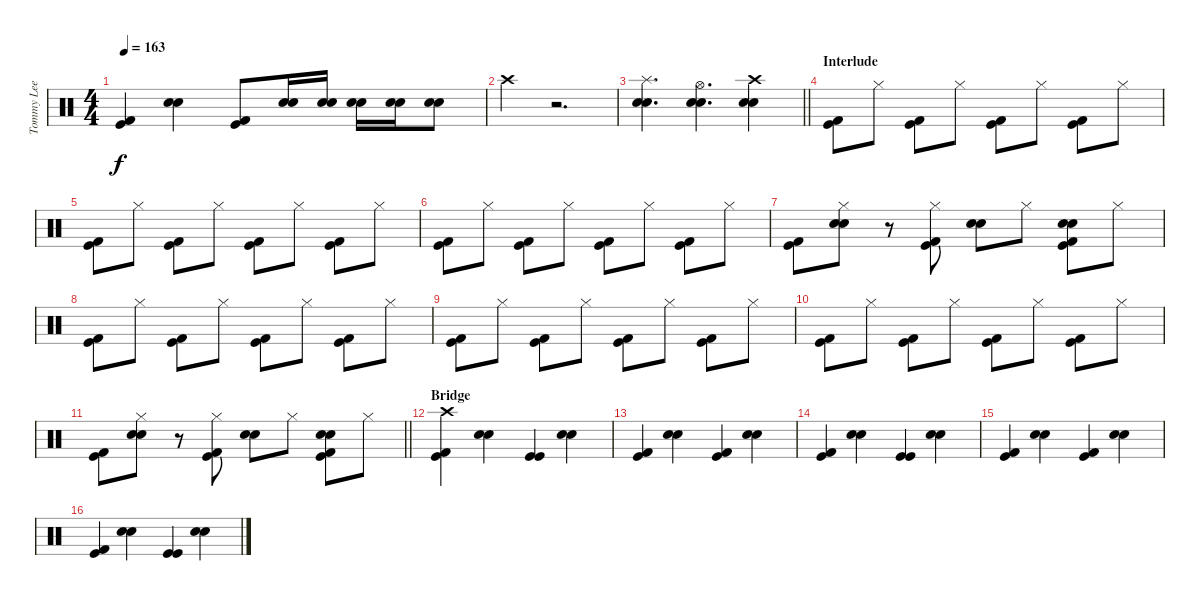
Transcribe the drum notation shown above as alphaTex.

\track ("Tommy Lee" "Tommy Lee") {instrument percussion}
\staff {score}
\articulation defaults
\ts (4 4)
\tempo 163
\clef neutral
\ks c
("Kick (hit) 2" "Kick (hit)").4{dy f} ("Electric Snare (hit)" "Snare (hit) 2").4 ("Kick (hit) 2" "Kick (hit)").8 ("Electric Snare (hit)" "Snare (hit) 2").16 ("Electric Snare (hit)" "Snare (hit) 2").16 ("Electric Snare (hit)" "Snare (hit) 2").16 ("Electric Snare (hit)" "Snare (hit) 2").16 ("Electric Snare (hit)" "Snare (hit) 2").8 |
"Crash high (hit)".4 r.2{d} |
\barLineRight lightlight
("Splash (hit)" "Electric Snare (hit)" "Snare (hit) 2").4{d} ("Hi-Hat (open)" "Electric Snare (hit)" "Snare (hit) 2").4{d} ("Crash high (hit)" "Electric Snare (hit)" "Snare (hit) 2").4 |
\section ("" "Interlude")
("Kick (hit) 2" "Kick (hit)").8 "Hi-Hat (closed)".8 ("Kick (hit) 2" "Kick (hit)").8 "Hi-Hat (closed)".8 ("Kick (hit) 2" "Kick (hit)").8 "Hi-Hat (closed)".8 ("Kick (hit) 2" "Kick (hit)").8 "Hi-Hat (closed)".8 |
("Kick (hit) 2" "Kick (hit)").8 "Hi-Hat (closed)".8 ("Kick (hit) 2" "Kick (hit)").8 "Hi-Hat (closed)".8 ("Kick (hit) 2" "Kick (hit)").8 "Hi-Hat (closed)".8 ("Kick (hit) 2" "Kick (hit)").8 "Hi-Hat (closed)".8 |
("Kick (hit) 2" "Kick (hit)").8 "Hi-Hat (closed)".8 ("Kick (hit) 2" "Kick (hit)").8 "Hi-Hat (closed)".8 ("Kick (hit) 2" "Kick (hit)").8 "Hi-Hat (closed)".8 ("Kick (hit) 2" "Kick (hit)").8 "Hi-Hat (closed)".8 |
("Kick (hit) 2" "Kick (hit)").8 ("Hi-Hat (closed)" "Electric Snare (hit)" "Snare (hit) 2").8 r.8 ("Hi-Hat (closed)" "Kick (hit) 2" "Kick (hit)").8 ("Electric Snare (hit)" "Snare (hit) 2").8 "Hi-Hat (closed)".8 ("Electric Snare (hit)" "Snare (hit) 2" "Kick (hit) 2" "Kick (hit)").8 "Hi-Hat (closed)".8 |
("Kick (hit) 2" "Kick (hit)").8 "Hi-Hat (closed)".8 ("Kick (hit) 2" "Kick (hit)").8 "Hi-Hat (closed)".8 ("Kick (hit) 2" "Kick (hit)").8 "Hi-Hat (closed)".8 ("Kick (hit) 2" "Kick (hit)").8 "Hi-Hat (closed)".8 |
("Kick (hit) 2" "Kick (hit)").8 "Hi-Hat (closed)".8 ("Kick (hit) 2" "Kick (hit)").8 "Hi-Hat (closed)".8 ("Kick (hit) 2" "Kick (hit)").8 "Hi-Hat (closed)".8 ("Kick (hit) 2" "Kick (hit)").8 "Hi-Hat (closed)".8 |
("Kick (hit) 2" "Kick (hit)").8 "Hi-Hat (closed)".8 ("Kick (hit) 2" "Kick (hit)").8 "Hi-Hat (closed)".8 ("Kick (hit) 2" "Kick (hit)").8 "Hi-Hat (closed)".8 ("Kick (hit) 2" "Kick (hit)").8 "Hi-Hat (closed)".8 |
\barLineRight lightlight
("Kick (hit) 2" "Kick (hit)").8 ("Hi-Hat (closed)" "Electric Snare (hit)" "Snare (hit) 2").8 r.8 ("Hi-Hat (closed)" "Kick (hit) 2" "Kick (hit)").8 ("Electric Snare (hit)" "Snare (hit) 2").8 "Hi-Hat (closed)".8 ("Electric Snare (hit)" "Snare (hit) 2" "Kick (hit) 2" "Kick (hit)").8 "Hi-Hat (closed)".8 |
\section ("" "Bridge")
("Crash high (hit)" "Kick (hit) 2" "Kick (hit)").4 ("Electric Snare (hit)" "Snare (hit) 2").4 ("Kick (hit)" "Kick (hit)").4 ("Electric Snare (hit)" "Snare (hit) 2").4 |
("Kick (hit) 2" "Kick (hit)").4 ("Electric Snare (hit)" "Snare (hit) 2").4 ("Kick (hit) 2" "Kick (hit)").4 ("Electric Snare (hit)" "Snare (hit) 2").4 |
("Kick (hit) 2" "Kick (hit)").4 ("Electric Snare (hit)" "Snare (hit) 2").4 ("Kick (hit)" "Kick (hit)").4 ("Electric Snare (hit)" "Snare (hit) 2").4 |
("Kick (hit) 2" "Kick (hit)").4 ("Electric Snare (hit)" "Snare (hit) 2").4 ("Kick (hit) 2" "Kick (hit)").4 ("Electric Snare (hit)" "Snare (hit) 2").4 |
("Kick (hit) 2" "Kick (hit)").4 ("Electric Snare (hit)" "Snare (hit) 2").4 ("Kick (hit)" "Kick (hit)").4 ("Electric Snare (hit)" "Snare (hit) 2").4
